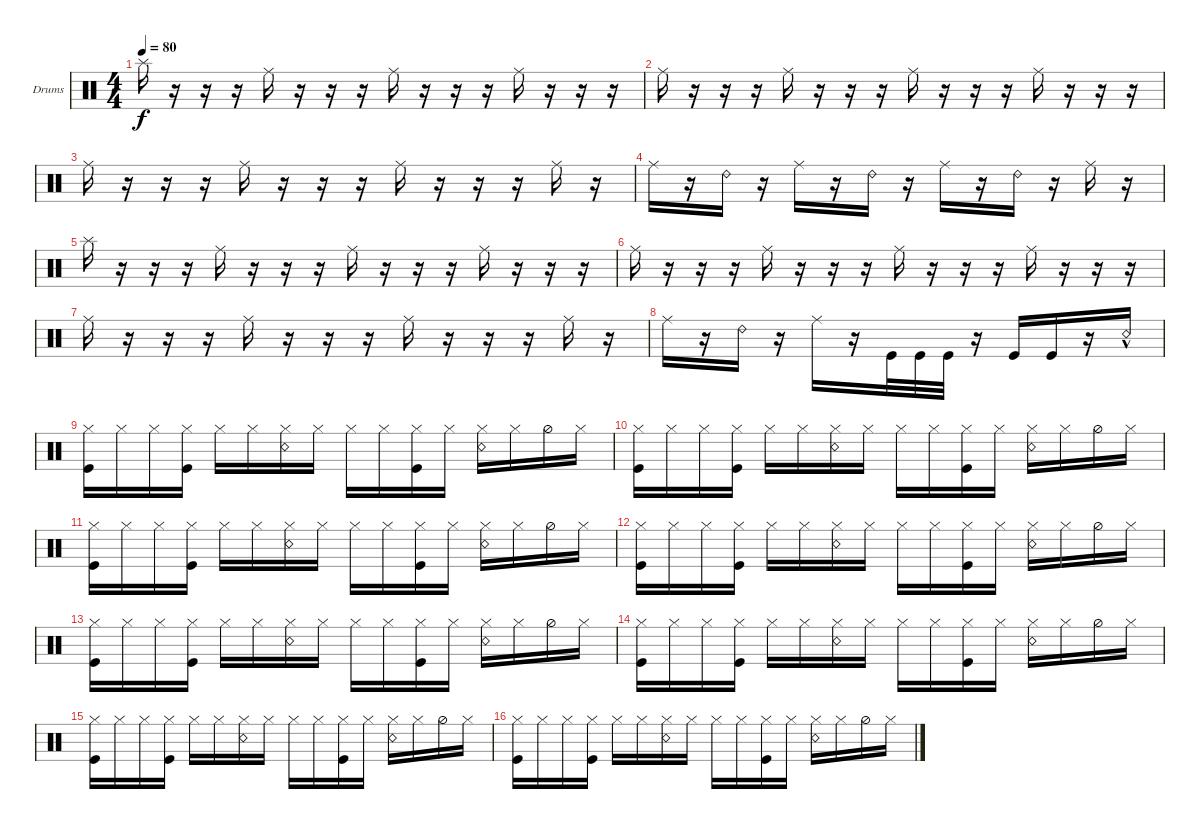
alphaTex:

\defaultSystemsLayout 4
\bracketExtendMode groupsimilarinstruments
\firstSystemTrackNameOrientation horizontal
\otherSystemsTrackNameOrientation horizontal
\track ("Drumkit" "Drums") {instrument percussion}
\staff {score}
\articulation defaults
\ts (4 4)
\tempo 80
\clef neutral
\scale
0.474178
\ks c "Splash (hit)".16{dy f}
r.16 r.16 r.16 "Ride (middle)".16 r.16 r.16 r.16 "Ride (middle)".16 r.16 r.16 r.16 "Ride (middle)".16 r.16 r.16 r.16 |
\scale
0.262911 "Ride (middle)".16 r.16 r.16 r.16 "Ride (middle)".16 r.16 r.16 r.16 "Ride (middle)".16 r.16 r.16 r.16 "Ride (middle)".16 r.16 r.16 r.16 |
\scale
0.262911 "Ride (middle)".16 r.16 r.16 r.16 "Ride (middle)".16 r.16 r.16 r.16 "Ride (middle)".16 r.16 r.16 r.16 "Ride (middle)".16 r.16 |
"Ride (middle)".16 r.16 "Ride (bell) 2".16 r.16 "Ride (middle)".16 r.16 "Ride (bell) 2".16 r.16 "Ride (middle)".16 r.16 "Ride (bell) 2".16 r.16 "Ride (middle)".16 r.16 |
"Splash (hit)".16 r.16 r.16 r.16 "Ride (middle)".16 r.16 r.16 r.16 "Ride (middle)".16 r.16 r.16 r.16 "Ride (middle)".16 r.16 r.16 r.16 |
"Ride (middle)".16 r.16 r.16 r.16 "Ride (middle)".16 r.16 r.16 r.16 "Ride (middle)".16 r.16 r.16 r.16 "Ride (middle)".16 r.16 r.16 r.16 |
"Ride (middle)".16 r.16 r.16 r.16 "Ride (middle)".16 r.16 r.16 r.16 "Ride (middle)".16 r.16 r.16 r.16 "Ride (middle)".16 r.16 |
"Ride (middle)".16 r.16 "Ride (bell) 2".16 r.16 "Ride (middle)".16 r.16 "Kick (hit)".32 "Kick (hit)".32 "Kick (hit)".32 r.16 "Kick (hit)".16 "Kick (hit)".16 r.16 "Snare (rim shot)"{hac}.16 |
("Kick (hit)" "Hi-Hat (closed)").16 "Hi-Hat (closed)".16 "Hi-Hat (closed)".16 ("Kick (hit)" "Hi-Hat (closed)").16 "Hi-Hat (closed)".16 "Hi-Hat (closed)".16 ("Snare (rim shot)" "Hi-Hat (closed)").16 "Hi-Hat (closed)".16 "Hi-Hat (closed)".16 "Hi-Hat (closed)".16 ("Hi-Hat (closed)" "Kick (hit)").16 "Hi-Hat (closed)".16 ("Hi-Hat (closed)" "Snare (rim shot)").16 "Hi-Hat (closed)".16 "Hi-Hat (half)".16 "Hi-Hat (closed)".16 |
("Kick (hit)" "Hi-Hat (closed)").16 "Hi-Hat (closed)".16 "Hi-Hat (closed)".16 ("Kick (hit)" "Hi-Hat (closed)").16 "Hi-Hat (closed)".16 "Hi-Hat (closed)".16 ("Snare (rim shot)" "Hi-Hat (closed)").16 "Hi-Hat (closed)".16 "Hi-Hat (closed)".16 "Hi-Hat (closed)".16 ("Hi-Hat (closed)" "Kick (hit)").16 "Hi-Hat (closed)".16 ("Hi-Hat (closed)" "Snare (rim shot)").16 "Hi-Hat (closed)".16 "Hi-Hat (half)".16 "Hi-Hat (closed)".16 |
("Kick (hit)" "Hi-Hat (closed)").16 "Hi-Hat (closed)".16 "Hi-Hat (closed)".16 ("Kick (hit)" "Hi-Hat (closed)").16 "Hi-Hat (closed)".16 "Hi-Hat (closed)".16 ("Snare (rim shot)" "Hi-Hat (closed)").16 "Hi-Hat (closed)".16 "Hi-Hat (closed)".16 "Hi-Hat (closed)".16 ("Hi-Hat (closed)" "Kick (hit)").16 "Hi-Hat (closed)".16 ("Hi-Hat (closed)" "Snare (rim shot)").16 "Hi-Hat (closed)".16 "Hi-Hat (half)".16 "Hi-Hat (closed)".16 |
("Kick (hit)" "Hi-Hat (closed)").16 "Hi-Hat (closed)".16 "Hi-Hat (closed)".16 ("Kick (hit)" "Hi-Hat (closed)").16 "Hi-Hat (closed)".16 "Hi-Hat (closed)".16 ("Snare (rim shot)" "Hi-Hat (closed)").16 "Hi-Hat (closed)".16 "Hi-Hat (closed)".16 "Hi-Hat (closed)".16 ("Hi-Hat (closed)" "Kick (hit)").16 "Hi-Hat (closed)".16 ("Hi-Hat (closed)" "Snare (rim shot)").16 "Hi-Hat (closed)".16 "Hi-Hat (half)".16 "Hi-Hat (closed)".16 |
("Kick (hit)" "Hi-Hat (closed)").16 "Hi-Hat (closed)".16 "Hi-Hat (closed)".16 ("Kick (hit)" "Hi-Hat (closed)").16 "Hi-Hat (closed)".16 "Hi-Hat (closed)".16 ("Snare (rim shot)" "Hi-Hat (closed)").16 "Hi-Hat (closed)".16 "Hi-Hat (closed)".16 "Hi-Hat (closed)".16 ("Hi-Hat (closed)" "Kick (hit)").16 "Hi-Hat (closed)".16 ("Hi-Hat (closed)" "Snare (rim shot)").16 "Hi-Hat (closed)".16 "Hi-Hat (half)".16 "Hi-Hat (closed)".16 |
("Kick (hit)" "Hi-Hat (closed)").16 "Hi-Hat (closed)".16 "Hi-Hat (closed)".16 ("Kick (hit)" "Hi-Hat (closed)").16 "Hi-Hat (closed)".16 "Hi-Hat (closed)".16 ("Snare (rim shot)" "Hi-Hat (closed)").16 "Hi-Hat (closed)".16 "Hi-Hat (closed)".16 "Hi-Hat (closed)".16 ("Hi-Hat (closed)" "Kick (hit)").16 "Hi-Hat (closed)".16 ("Hi-Hat (closed)" "Snare (rim shot)").16 "Hi-Hat (closed)".16 "Hi-Hat (half)".16 "Hi-Hat (closed)".16 |
("Kick (hit)" "Hi-Hat (closed)").16 "Hi-Hat (closed)".16 "Hi-Hat (closed)".16 ("Kick (hit)" "Hi-Hat (closed)").16 "Hi-Hat (closed)".16 "Hi-Hat (closed)".16 ("Snare (rim shot)" "Hi-Hat (closed)").16 "Hi-Hat (closed)".16 "Hi-Hat (closed)".16 "Hi-Hat (closed)".16 ("Hi-Hat (closed)" "Kick (hit)").16 "Hi-Hat (closed)".16 ("Hi-Hat (closed)" "Snare (rim shot)").16 "Hi-Hat (closed)".16 "Hi-Hat (half)".16 "Hi-Hat (closed)".16 |
("Kick (hit)" "Hi-Hat (closed)").16 "Hi-Hat (closed)".16 "Hi-Hat (closed)".16 ("Kick (hit)" "Hi-Hat (closed)").16 "Hi-Hat (closed)".16 "Hi-Hat (closed)".16 ("Snare (rim shot)" "Hi-Hat (closed)").16 "Hi-Hat (closed)".16 "Hi-Hat (closed)".16 "Hi-Hat (closed)".16 ("Hi-Hat (closed)" "Kick (hit)").16 "Hi-Hat (closed)".16 ("Hi-Hat (closed)" "Snare (rim shot)").16 "Hi-Hat (closed)".16 "Hi-Hat (half)".16 "Hi-Hat (closed)".16
